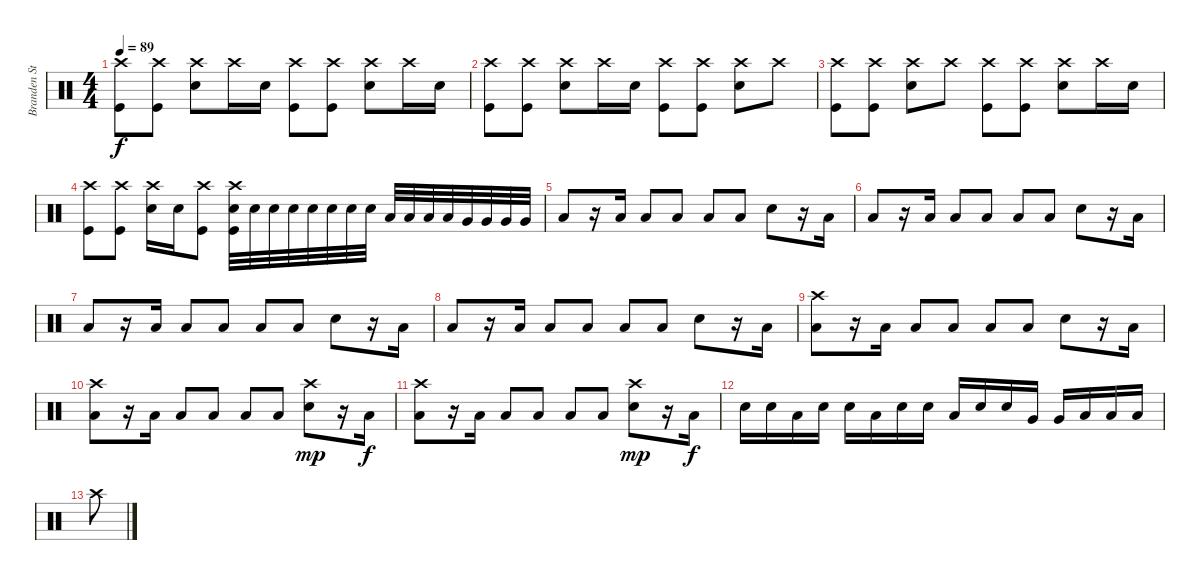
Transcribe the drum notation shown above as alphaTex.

\track ("Branden Steineckert - Drums" "Branden St") {instrument percussion}
\staff {score}
\articulation defaults
\ts (4 4)
\tempo 89
\clef neutral
\ks c
("Crash high (hit)" "Kick (hit)").8{dy f} ("Crash high (hit)" "Kick (hit)").8 ("Crash high (hit)" "Electric Snare (hit)").8 "Crash high (hit)".16 "Electric Snare (hit)".16 ("Crash high (hit)" "Kick (hit)").8 ("Crash high (hit)" "Kick (hit)").8 ("Crash high (hit)" "Electric Snare (hit)").8 "Crash high (hit)".16 "Electric Snare (hit)".16 |
("Crash high (hit)" "Kick (hit)").8 ("Crash high (hit)" "Kick (hit)").8 ("Crash high (hit)" "Electric Snare (hit)").8 "Crash high (hit)".16 "Electric Snare (hit)".16 ("Crash high (hit)" "Kick (hit)").8 ("Crash high (hit)" "Kick (hit)").8 ("Crash high (hit)" "Electric Snare (hit)").8 "Crash high (hit)".8 |
("Crash high (hit)" "Kick (hit)").8 ("Crash high (hit)" "Kick (hit)").8 ("Crash high (hit)" "Electric Snare (hit)").8 "Crash high (hit)".8 ("Crash high (hit)" "Kick (hit)").8 ("Crash high (hit)" "Kick (hit)").8 ("Crash high (hit)" "Electric Snare (hit)").8 "Crash high (hit)".16 "Electric Snare (hit)".16 |
("Crash high (hit)" "Kick (hit)").8 ("Crash high (hit)" "Kick (hit)").8 ("Crash high (hit)" "Electric Snare (hit)").16 "Electric Snare (hit)".16 ("Crash high (hit)" "Kick (hit)").8 ("Crash high (hit)" "Electric Snare (hit)" "Kick (hit)").32 "Electric Snare (hit)".32 "Electric Snare (hit)".32 "Electric Snare (hit)".32 "Electric Snare (hit)".32 "Electric Snare (hit)".32 "Electric Snare (hit)".32 "Electric Snare (hit)".32 "Low Tom (hit)".32 "Low Tom (hit)".32 "Low Tom (hit)".32 "Low Tom (hit)".32 "Very Low Tom (hit)".32 "Very Low Tom (hit)".32 "Very Low Tom (hit)".32 "Very Low Tom (hit)".32 |
"Low Floor Tom (hit)".8 r.16 "Low Floor Tom (hit)".16 "Low Floor Tom (hit)".8 "Low Floor Tom (hit)".8 "Low Floor Tom (hit)".8 "Low Floor Tom (hit)".8 "Electric Snare (hit)".8 r.16 "Low Floor Tom (hit)".16 |
"Low Floor Tom (hit)".8 r.16 "Low Floor Tom (hit)".16 "Low Floor Tom (hit)".8 "Low Floor Tom (hit)".8 "Low Floor Tom (hit)".8 "Low Floor Tom (hit)".8 "Electric Snare (hit)".8 r.16 "Low Floor Tom (hit)".16 |
"Low Floor Tom (hit)".8 r.16 "Low Floor Tom (hit)".16 "Low Floor Tom (hit)".8 "Low Floor Tom (hit)".8 "Low Floor Tom (hit)".8 "Low Floor Tom (hit)".8 "Electric Snare (hit)".8 r.16 "Low Floor Tom (hit)".16 |
"Low Floor Tom (hit)".8 r.16 "Low Floor Tom (hit)".16 "Low Floor Tom (hit)".8 "Low Floor Tom (hit)".8 "Low Floor Tom (hit)".8 "Low Floor Tom (hit)".8 "Electric Snare (hit)".8 r.16 "Low Floor Tom (hit)".16 |
("Crash high (hit)" "Low Floor Tom (hit)").8 r.16 "Low Floor Tom (hit)".16 "Low Floor Tom (hit)".8 "Low Floor Tom (hit)".8 "Low Floor Tom (hit)".8 "Low Floor Tom (hit)".8 "Electric Snare (hit)".8 r.16 "Low Floor Tom (hit)".16 |
("Crash high (hit)" "Low Floor Tom (hit)").8 r.16 "Low Floor Tom (hit)".16 "Low Floor Tom (hit)".8 "Low Floor Tom (hit)".8 "Low Floor Tom (hit)".8 "Low Floor Tom (hit)".8 ("Crash high (hit)" "Electric Snare (hit)").8{dy mp} r.16 "Low Floor Tom (hit)".16{dy f} |
("Crash high (hit)" "Low Floor Tom (hit)").8 r.16 "Low Floor Tom (hit)".16 "Low Floor Tom (hit)".8 "Low Floor Tom (hit)".8 "Low Floor Tom (hit)".8 "Low Floor Tom (hit)".8 ("Crash high (hit)" "Electric Snare (hit)").8{dy mp} r.16 "Low Floor Tom (hit)".16{dy f} |
"Electric Snare (hit)".16 "Electric Snare (hit)".16 "Low Floor Tom (hit)".16 "Electric Snare (hit)".16 "Electric Snare (hit)".16 "Low Floor Tom (hit)".16 "Electric Snare (hit)".16 "Electric Snare (hit)".16 "Low Floor Tom (hit)".16 "Electric Snare (hit)".16 "Electric Snare (hit)".16 "Very Low Tom (hit)".16 "Very Low Tom (hit)".16 "Low Floor Tom (hit)".16 "Low Floor Tom (hit)".16 "Low Floor Tom (hit)".16 |
"Crash high (hit)".8
